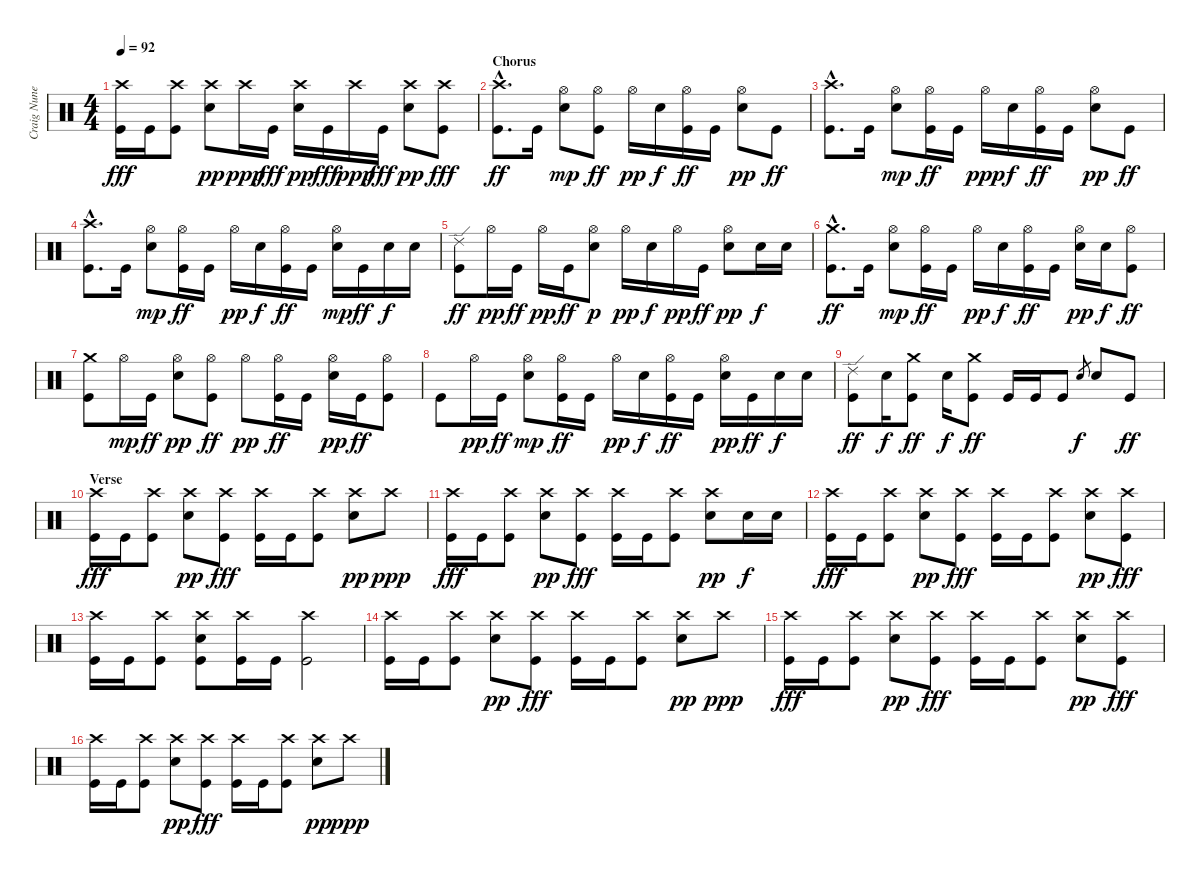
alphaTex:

\track ("Craig Nunenmacher" "Craig Nune") {instrument percussion}
\staff {score}
\articulation defaults
\ts (4 4)
\tempo 92
\clef neutral
\ks c
("Crash high (hit)" "Kick (hit)").16{dy fff} "Kick (hit)".16 ("Crash high (hit)" "Kick (hit)").8 ("Crash high (hit)" "Snare (hit) 2").8{dy pp} "Crash high (hit)".16{dy ppp} "Kick (hit)".16{dy fff} ("Crash high (hit)" "Snare (hit) 2").16{dy pp} "Kick (hit)".16{dy fff} "Crash high (hit)".16{dy ppp} "Kick (hit)".16{dy fff} ("Crash high (hit)" "Snare (hit) 2").8{dy pp} ("Crash high (hit)" "Kick (hit)").8{dy fff} |
\section ("" "Chorus")
("Crash high (hit)"{hac} "Kick (hit)"{hac}).8{d dy ff} "Kick (hit)".16 ("Hi-Hat (open)" "Snare (hit) 2").8{dy mp} ("Hi-Hat (open)" "Kick (hit)").8{dy ff} "Hi-Hat (open)".16{dy pp} "Snare (hit) 2".16{dy f} ("Hi-Hat (open)" "Kick (hit)").16{dy ff} "Kick (hit)".16 ("Hi-Hat (open)" "Snare (hit) 2").8{dy pp} "Kick (hit)".8{dy ff} |
("Crash high (hit)"{hac} "Kick (hit)"{hac}).8{d} "Kick (hit)".16 ("Hi-Hat (open)" "Snare (hit) 2").8{dy mp} ("Hi-Hat (open)" "Kick (hit)").16{dy ff} "Kick (hit)".16 "Hi-Hat (open)".16{dy ppp} "Snare (hit) 2".16{dy f} ("Hi-Hat (open)" "Kick (hit)").16{dy ff} "Kick (hit)".16 ("Hi-Hat (open)" "Snare (hit) 2").8{dy pp} "Kick (hit)".8{dy ff} |
("Crash high (hit)"{hac} "Kick (hit)"{hac}).8{d} "Kick (hit)".16 ("Hi-Hat (open)" "Snare (hit) 2").8{dy mp} ("Hi-Hat (open)" "Kick (hit)").16{dy ff} "Kick (hit)".16 "Hi-Hat (open)".16{dy pp} "Snare (hit) 2".16{dy f} ("Hi-Hat (open)" "Kick (hit)").16{dy ff} "Kick (hit)".16 ("Hi-Hat (open)" "Snare (hit) 2").16{dy mp} "Kick (hit)".16{dy ff} "Snare (hit) 2".16{dy f} "Snare (hit) 2".16 |
("Ride (edge) 2" "Kick (hit)").8{dy ff} "Hi-Hat (open)".16{dy pp} "Kick (hit)".16{dy ff} "Hi-Hat (open)".16{dy pp} "Kick (hit)".16{dy ff} ("Hi-Hat (open)" "Snare (hit) 2").8{dy p} "Hi-Hat (open)".16{dy pp} "Snare (hit) 2".16{dy f} "Hi-Hat (open)".16{dy pp} "Kick (hit)".16{dy ff} ("Hi-Hat (open)" "Snare (hit) 2").8{dy pp} "Snare (hit) 2".16{dy f} "Snare (hit) 2".16 |
("Crash medium (hit)"{hac} "Kick (hit)"{hac}).8{d dy ff} "Kick (hit)".16 ("Hi-Hat (open)" "Snare (hit) 2").8{dy mp} ("Hi-Hat (open)" "Kick (hit)").16{dy ff} "Kick (hit)".16 "Hi-Hat (open)".16{dy pp} "Snare (hit) 2".16{dy f} ("Hi-Hat (open)" "Kick (hit)").16{dy ff} "Kick (hit)".16 ("Hi-Hat (open)" "Snare (hit) 2").16{dy pp} "Snare (hit) 2".16{dy f} ("Hi-Hat (open)" "Kick (hit)").8{dy ff} |
("Crash medium (hit)" "Kick (hit)").8 "Hi-Hat (open)".16{dy mp} "Kick (hit)".16{dy ff} ("Hi-Hat (open)" "Snare (hit) 2").8{dy pp} ("Hi-Hat (open)" "Kick (hit)").8{dy ff} "Hi-Hat (open)".8{dy pp} ("Hi-Hat (open)" "Kick (hit)").16{dy ff} "Kick (hit)".16 ("Hi-Hat (open)" "Snare (hit) 2").16{dy pp} "Kick (hit)".16{dy ff} ("Hi-Hat (open)" "Kick (hit)").8 |
"Kick (hit)".8 "Hi-Hat (open)".16{dy pp} "Kick (hit)".16{dy ff} ("Hi-Hat (open)" "Snare (hit) 2").8{dy mp} ("Hi-Hat (open)" "Kick (hit)").16{dy ff} "Kick (hit)".16 "Hi-Hat (open)".16{dy pp} "Snare (hit) 2".16{dy f} ("Hi-Hat (open)" "Kick (hit)").16{dy ff} "Kick (hit)".16 ("Hi-Hat (open)" "Snare (hit) 2").16{dy pp} "Kick (hit)".16{dy ff} "Snare (hit) 2".16{dy f} "Snare (hit) 2".16 |
("Ride (edge) 2" "Kick (hit)").8{dy ff} "Snare (hit) 2".16{dy f} ("Crash medium (hit)" "Kick (hit)").8{dy ff} "Snare (hit) 2".16{dy f} ("Crash medium (hit)" "Kick (hit)").8{dy ff} "Kick (hit)".16 "Kick (hit)".16 "Kick (hit)".8 "Snare (hit) 2".8{gr dy f} "Snare (hit) 2".8 "Kick (hit)".8{dy ff} |
\section ("" "Verse")
("Crash high (hit)" "Kick (hit)").16{dy fff} "Kick (hit)".16 ("Crash high (hit)" "Kick (hit)").8 ("Crash high (hit)" "Snare (hit) 2").8{dy pp} ("Crash high (hit)" "Kick (hit)").8{dy fff} ("Crash high (hit)" "Kick (hit)").16 "Kick (hit)".16 ("Crash high (hit)" "Kick (hit)").8 ("Crash high (hit)" "Snare (hit) 2").8{dy pp} "Crash high (hit)".8{dy ppp} |
("Crash high (hit)" "Kick (hit)").16{dy fff} "Kick (hit)".16 ("Crash high (hit)" "Kick (hit)").8 ("Crash high (hit)" "Snare (hit) 2").8{dy pp} ("Crash high (hit)" "Kick (hit)").8{dy fff} ("Crash high (hit)" "Kick (hit)").16 "Kick (hit)".16 ("Crash high (hit)" "Kick (hit)").8 ("Crash high (hit)" "Snare (hit) 2").8{dy pp} "Snare (hit) 2".16{dy f} "Snare (hit) 2".16 |
("Crash high (hit)" "Kick (hit)").16{dy fff} "Kick (hit)".16 ("Crash high (hit)" "Kick (hit)").8 ("Crash high (hit)" "Snare (hit) 2").8{dy pp} ("Crash high (hit)" "Kick (hit)").8{dy fff} ("Crash high (hit)" "Kick (hit)").16 "Kick (hit)".16 ("Crash high (hit)" "Kick (hit)").8 ("Crash high (hit)" "Snare (hit) 2").8{dy pp} ("Crash high (hit)" "Kick (hit)").8{dy fff} |
("Crash high (hit)" "Kick (hit)").16 "Kick (hit)".16 ("Crash high (hit)" "Kick (hit)").8 ("Crash high (hit)" "Snare (hit) 2" "Kick (hit)").8 ("Crash high (hit)" "Kick (hit)").16 "Kick (hit)".16 ("Crash high (hit)" "Kick (hit)").2 |
("Crash high (hit)" "Kick (hit)").16 "Kick (hit)".16 ("Crash high (hit)" "Kick (hit)").8 ("Crash high (hit)" "Snare (hit) 2").8{dy pp} ("Crash high (hit)" "Kick (hit)").8{dy fff} ("Crash high (hit)" "Kick (hit)").16 "Kick (hit)".16 ("Crash high (hit)" "Kick (hit)").8 ("Crash high (hit)" "Snare (hit) 2").8{dy pp} "Crash high (hit)".8{dy ppp} |
("Crash high (hit)" "Kick (hit)").16{dy fff} "Kick (hit)".16 ("Crash high (hit)" "Kick (hit)").8 ("Crash high (hit)" "Snare (hit) 2").8{dy pp} ("Crash high (hit)" "Kick (hit)").8{dy fff} ("Crash high (hit)" "Kick (hit)").16 "Kick (hit)".16 ("Crash high (hit)" "Kick (hit)").8 ("Crash high (hit)" "Snare (hit) 2").8{dy pp} ("Crash high (hit)" "Kick (hit)").8{dy fff} |
("Crash high (hit)" "Kick (hit)").16 "Kick (hit)".16 ("Crash high (hit)" "Kick (hit)").8 ("Crash high (hit)" "Snare (hit) 2").8{dy pp} ("Crash high (hit)" "Kick (hit)").8{dy fff} ("Crash high (hit)" "Kick (hit)").16 "Kick (hit)".16 ("Crash high (hit)" "Kick (hit)").8 ("Crash high (hit)" "Snare (hit) 2").8{dy pp} "Crash high (hit)".8{dy ppp}
